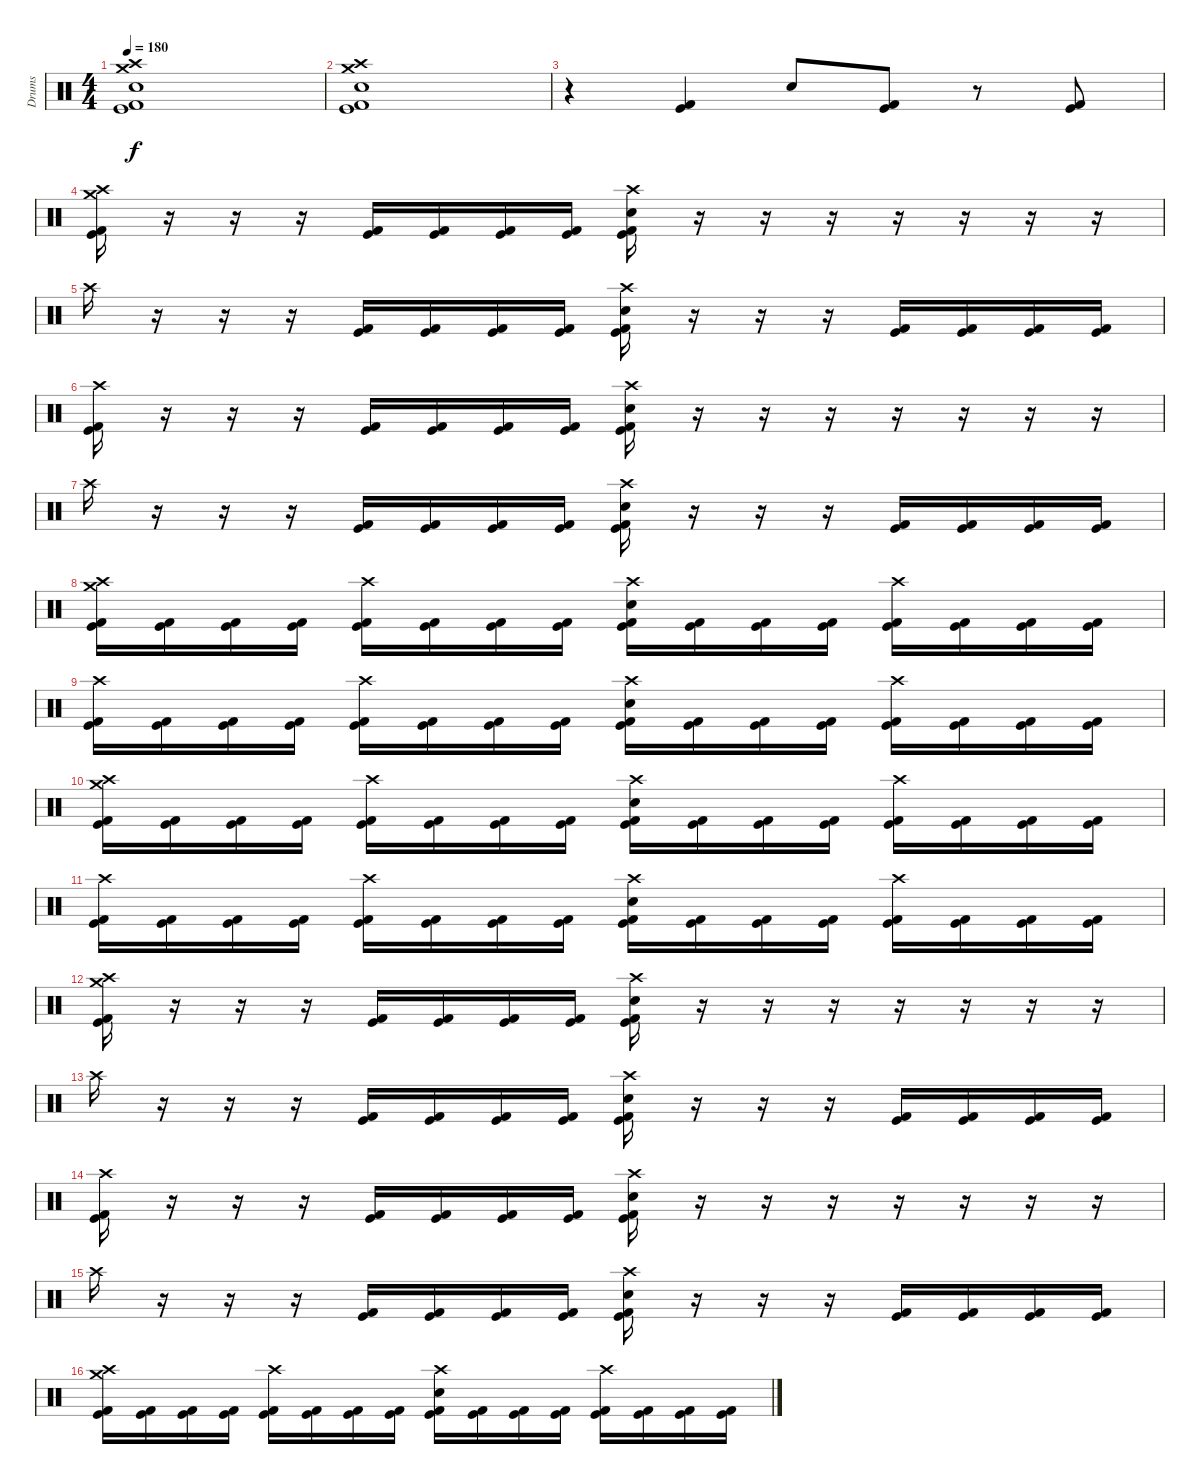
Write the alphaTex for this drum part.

\track ("Drums" "Drums") {instrument percussion}
\staff {score}
\articulation defaults
\ts (4 4)
\tempo 180
\clef neutral
\ks c
("Crash medium (hit)" "Crash high (hit)" "Snare (hit) 2" "Kick (hit)" "Kick (hit) 2").1{dy f} |
("Crash medium (hit)" "Crash high (hit)" "Snare (hit) 2" "Kick (hit)" "Kick (hit) 2").1 |
r.4 ("Kick (hit)" "Kick (hit) 2").4 "Snare (hit) 2".8 ("Kick (hit)" "Kick (hit) 2").8 r.8 ("Kick (hit)" "Kick (hit) 2").8 |
("Crash medium (hit)" "Crash high (hit)" "Kick (hit)" "Kick (hit) 2").16 r.16 r.16 r.16 ("Kick (hit)" "Kick (hit) 2").16 ("Kick (hit)" "Kick (hit) 2").16 ("Kick (hit)" "Kick (hit) 2").16 ("Kick (hit)" "Kick (hit) 2").16 ("Crash high (hit)" "Snare (hit) 2" "Kick (hit)" "Kick (hit) 2").16 r.16 r.16 r.16 r.16 r.16 r.16 r.16 |
"Crash high (hit)".16 r.16 r.16 r.16 ("Kick (hit)" "Kick (hit) 2").16 ("Kick (hit)" "Kick (hit) 2").16 ("Kick (hit)" "Kick (hit) 2").16 ("Kick (hit)" "Kick (hit) 2").16 ("Crash high (hit)" "Snare (hit) 2" "Kick (hit)" "Kick (hit) 2").16 r.16 r.16 r.16 ("Kick (hit)" "Kick (hit) 2").16 ("Kick (hit)" "Kick (hit) 2").16 ("Kick (hit)" "Kick (hit) 2").16 ("Kick (hit)" "Kick (hit) 2").16 |
("Crash high (hit)" "Kick (hit)" "Kick (hit) 2").16 r.16 r.16 r.16 ("Kick (hit)" "Kick (hit) 2").16 ("Kick (hit)" "Kick (hit) 2").16 ("Kick (hit)" "Kick (hit) 2").16 ("Kick (hit)" "Kick (hit) 2").16 ("Crash high (hit)" "Snare (hit) 2" "Kick (hit)" "Kick (hit) 2").16 r.16 r.16 r.16 r.16 r.16 r.16 r.16 |
"Crash high (hit)".16 r.16 r.16 r.16 ("Kick (hit)" "Kick (hit) 2").16 ("Kick (hit)" "Kick (hit) 2").16 ("Kick (hit)" "Kick (hit) 2").16 ("Kick (hit)" "Kick (hit) 2").16 ("Crash high (hit)" "Snare (hit) 2" "Kick (hit)" "Kick (hit) 2").16 r.16 r.16 r.16 ("Kick (hit)" "Kick (hit) 2").16 ("Kick (hit)" "Kick (hit) 2").16 ("Kick (hit)" "Kick (hit) 2").16 ("Kick (hit)" "Kick (hit) 2").16 |
("Crash medium (hit)" "Crash high (hit)" "Kick (hit)" "Kick (hit) 2").16 ("Kick (hit)" "Kick (hit) 2").16 ("Kick (hit)" "Kick (hit) 2").16 ("Kick (hit)" "Kick (hit) 2").16 ("Crash high (hit)" "Kick (hit)" "Kick (hit) 2").16 ("Kick (hit)" "Kick (hit) 2").16 ("Kick (hit)" "Kick (hit) 2").16 ("Kick (hit)" "Kick (hit) 2").16 ("Crash high (hit)" "Snare (hit) 2" "Kick (hit)" "Kick (hit) 2").16 ("Kick (hit)" "Kick (hit) 2").16 ("Kick (hit)" "Kick (hit) 2").16 ("Kick (hit)" "Kick (hit) 2").16 ("Crash high (hit)" "Kick (hit)" "Kick (hit) 2").16 ("Kick (hit)" "Kick (hit) 2").16 ("Kick (hit)" "Kick (hit) 2").16 ("Kick (hit)" "Kick (hit) 2").16 |
("Crash high (hit)" "Kick (hit)" "Kick (hit) 2").16 ("Kick (hit)" "Kick (hit) 2").16 ("Kick (hit)" "Kick (hit) 2").16 ("Kick (hit)" "Kick (hit) 2").16 ("Crash high (hit)" "Kick (hit)" "Kick (hit) 2").16 ("Kick (hit)" "Kick (hit) 2").16 ("Kick (hit)" "Kick (hit) 2").16 ("Kick (hit)" "Kick (hit) 2").16 ("Crash high (hit)" "Snare (hit) 2" "Kick (hit)" "Kick (hit) 2").16 ("Kick (hit)" "Kick (hit) 2").16 ("Kick (hit)" "Kick (hit) 2").16 ("Kick (hit)" "Kick (hit) 2").16 ("Crash high (hit)" "Kick (hit)" "Kick (hit) 2").16 ("Kick (hit)" "Kick (hit) 2").16 ("Kick (hit)" "Kick (hit) 2").16 ("Kick (hit)" "Kick (hit) 2").16 |
("Crash medium (hit)" "Crash high (hit)" "Kick (hit)" "Kick (hit) 2").16 ("Kick (hit)" "Kick (hit) 2").16 ("Kick (hit)" "Kick (hit) 2").16 ("Kick (hit)" "Kick (hit) 2").16 ("Crash high (hit)" "Kick (hit)" "Kick (hit) 2").16 ("Kick (hit)" "Kick (hit) 2").16 ("Kick (hit)" "Kick (hit) 2").16 ("Kick (hit)" "Kick (hit) 2").16 ("Crash high (hit)" "Snare (hit) 2" "Kick (hit)" "Kick (hit) 2").16 ("Kick (hit)" "Kick (hit) 2").16 ("Kick (hit)" "Kick (hit) 2").16 ("Kick (hit)" "Kick (hit) 2").16 ("Crash high (hit)" "Kick (hit)" "Kick (hit) 2").16 ("Kick (hit)" "Kick (hit) 2").16 ("Kick (hit)" "Kick (hit) 2").16 ("Kick (hit)" "Kick (hit) 2").16 |
("Crash high (hit)" "Kick (hit)" "Kick (hit) 2").16 ("Kick (hit)" "Kick (hit) 2").16 ("Kick (hit)" "Kick (hit) 2").16 ("Kick (hit)" "Kick (hit) 2").16 ("Crash high (hit)" "Kick (hit)" "Kick (hit) 2").16 ("Kick (hit)" "Kick (hit) 2").16 ("Kick (hit)" "Kick (hit) 2").16 ("Kick (hit)" "Kick (hit) 2").16 ("Crash high (hit)" "Snare (hit) 2" "Kick (hit)" "Kick (hit) 2").16 ("Kick (hit)" "Kick (hit) 2").16 ("Kick (hit)" "Kick (hit) 2").16 ("Kick (hit)" "Kick (hit) 2").16 ("Crash high (hit)" "Kick (hit)" "Kick (hit) 2").16 ("Kick (hit)" "Kick (hit) 2").16 ("Kick (hit)" "Kick (hit) 2").16 ("Kick (hit)" "Kick (hit) 2").16 |
("Crash medium (hit)" "Crash high (hit)" "Kick (hit)" "Kick (hit) 2").16 r.16 r.16 r.16 ("Kick (hit)" "Kick (hit) 2").16 ("Kick (hit)" "Kick (hit) 2").16 ("Kick (hit)" "Kick (hit) 2").16 ("Kick (hit)" "Kick (hit) 2").16 ("Crash high (hit)" "Snare (hit) 2" "Kick (hit)" "Kick (hit) 2").16 r.16 r.16 r.16 r.16 r.16 r.16 r.16 |
"Crash high (hit)".16 r.16 r.16 r.16 ("Kick (hit)" "Kick (hit) 2").16 ("Kick (hit)" "Kick (hit) 2").16 ("Kick (hit)" "Kick (hit) 2").16 ("Kick (hit)" "Kick (hit) 2").16 ("Crash high (hit)" "Snare (hit) 2" "Kick (hit)" "Kick (hit) 2").16 r.16 r.16 r.16 ("Kick (hit)" "Kick (hit) 2").16 ("Kick (hit)" "Kick (hit) 2").16 ("Kick (hit)" "Kick (hit) 2").16 ("Kick (hit)" "Kick (hit) 2").16 |
("Crash high (hit)" "Kick (hit)" "Kick (hit) 2").16 r.16 r.16 r.16 ("Kick (hit)" "Kick (hit) 2").16 ("Kick (hit)" "Kick (hit) 2").16 ("Kick (hit)" "Kick (hit) 2").16 ("Kick (hit)" "Kick (hit) 2").16 ("Crash high (hit)" "Snare (hit) 2" "Kick (hit)" "Kick (hit) 2").16 r.16 r.16 r.16 r.16 r.16 r.16 r.16 |
"Crash high (hit)".16 r.16 r.16 r.16 ("Kick (hit)" "Kick (hit) 2").16 ("Kick (hit)" "Kick (hit) 2").16 ("Kick (hit)" "Kick (hit) 2").16 ("Kick (hit)" "Kick (hit) 2").16 ("Crash high (hit)" "Snare (hit) 2" "Kick (hit)" "Kick (hit) 2").16 r.16 r.16 r.16 ("Kick (hit)" "Kick (hit) 2").16 ("Kick (hit)" "Kick (hit) 2").16 ("Kick (hit)" "Kick (hit) 2").16 ("Kick (hit)" "Kick (hit) 2").16 |
("Crash medium (hit)" "Crash high (hit)" "Kick (hit)" "Kick (hit) 2").16 ("Kick (hit)" "Kick (hit) 2").16 ("Kick (hit)" "Kick (hit) 2").16 ("Kick (hit)" "Kick (hit) 2").16 ("Crash high (hit)" "Kick (hit)" "Kick (hit) 2").16 ("Kick (hit)" "Kick (hit) 2").16 ("Kick (hit)" "Kick (hit) 2").16 ("Kick (hit)" "Kick (hit) 2").16 ("Crash high (hit)" "Snare (hit) 2" "Kick (hit)" "Kick (hit) 2").16 ("Kick (hit)" "Kick (hit) 2").16 ("Kick (hit)" "Kick (hit) 2").16 ("Kick (hit)" "Kick (hit) 2").16 ("Crash high (hit)" "Kick (hit)" "Kick (hit) 2").16 ("Kick (hit)" "Kick (hit) 2").16 ("Kick (hit)" "Kick (hit) 2").16 ("Kick (hit)" "Kick (hit) 2").16
